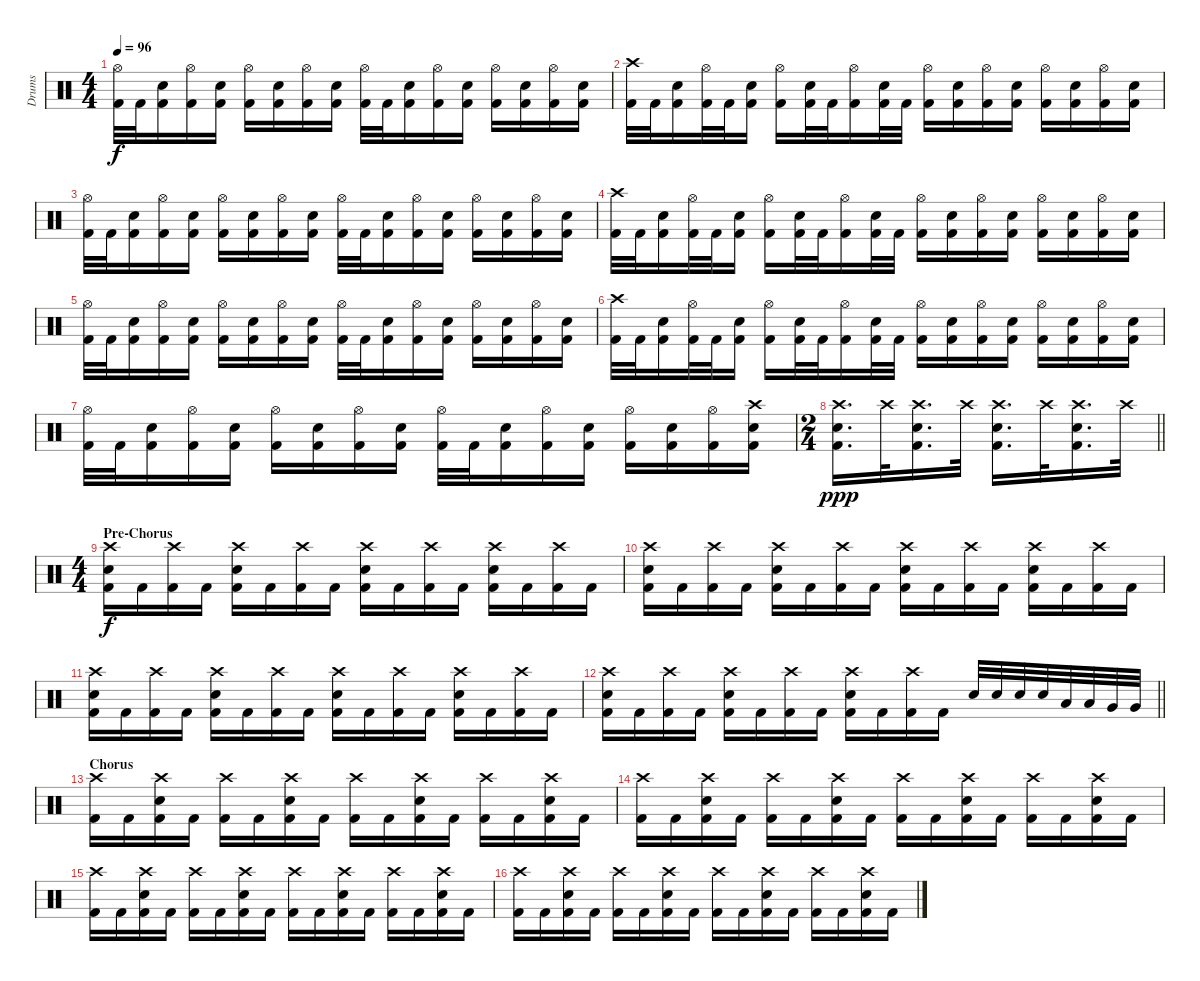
\track ("Drums" "Drums") {instrument percussion}
\staff {score}
\articulation defaults
\ts (4 4)
\tempo 96
\clef neutral
\ks c
("Hi-Hat (open)" "Kick (hit) 2").32{dy f} "Kick (hit) 2".32 ("Snare (hit) 2" "Kick (hit) 2").16 ("Hi-Hat (open)" "Kick (hit) 2").16 ("Snare (hit) 2" "Kick (hit) 2").16 ("Hi-Hat (open)" "Kick (hit) 2").16 ("Snare (hit) 2" "Kick (hit) 2").16 ("Hi-Hat (open)" "Kick (hit) 2").16 ("Snare (hit) 2" "Kick (hit) 2").16 ("Hi-Hat (open)" "Kick (hit) 2").32 "Kick (hit) 2".32 ("Snare (hit) 2" "Kick (hit) 2").16 ("Hi-Hat (open)" "Kick (hit) 2").16 ("Snare (hit) 2" "Kick (hit) 2").16 ("Hi-Hat (open)" "Kick (hit) 2").16 ("Snare (hit) 2" "Kick (hit) 2").16 ("Hi-Hat (open)" "Kick (hit) 2").16 ("Snare (hit) 2" "Kick (hit) 2").16 |
("Crash high (hit)" "Kick (hit) 2").32 "Kick (hit) 2".32 ("Snare (hit) 2" "Kick (hit) 2").16 ("Hi-Hat (open)" "Kick (hit) 2").32 "Kick (hit) 2".32 ("Snare (hit) 2" "Kick (hit) 2").16 ("Hi-Hat (open)" "Kick (hit) 2").16 ("Snare (hit) 2" "Kick (hit) 2").32 "Kick (hit) 2".32 ("Hi-Hat (open)" "Kick (hit) 2").16 ("Snare (hit) 2" "Kick (hit) 2").32 "Kick (hit) 2".32 ("Hi-Hat (open)" "Kick (hit) 2").16 ("Snare (hit) 2" "Kick (hit) 2").16 ("Hi-Hat (open)" "Kick (hit) 2").16 ("Snare (hit) 2" "Kick (hit) 2").16 ("Hi-Hat (open)" "Kick (hit) 2").16 ("Snare (hit) 2" "Kick (hit) 2").16 ("Hi-Hat (open)" "Kick (hit) 2").16 ("Snare (hit) 2" "Kick (hit) 2").16 |
("Hi-Hat (open)" "Kick (hit) 2").32 "Kick (hit) 2".32 ("Snare (hit) 2" "Kick (hit) 2").16 ("Hi-Hat (open)" "Kick (hit) 2").16 ("Snare (hit) 2" "Kick (hit) 2").16 ("Hi-Hat (open)" "Kick (hit) 2").16 ("Snare (hit) 2" "Kick (hit) 2").16 ("Hi-Hat (open)" "Kick (hit) 2").16 ("Snare (hit) 2" "Kick (hit) 2").16 ("Hi-Hat (open)" "Kick (hit) 2").32 "Kick (hit) 2".32 ("Snare (hit) 2" "Kick (hit) 2").16 ("Hi-Hat (open)" "Kick (hit) 2").16 ("Snare (hit) 2" "Kick (hit) 2").16 ("Hi-Hat (open)" "Kick (hit) 2").16 ("Snare (hit) 2" "Kick (hit) 2").16 ("Hi-Hat (open)" "Kick (hit) 2").16 ("Snare (hit) 2" "Kick (hit) 2").16 |
("Crash high (hit)" "Kick (hit) 2").32 "Kick (hit) 2".32 ("Snare (hit) 2" "Kick (hit) 2").16 ("Hi-Hat (open)" "Kick (hit) 2").32 "Kick (hit) 2".32 ("Snare (hit) 2" "Kick (hit) 2").16 ("Hi-Hat (open)" "Kick (hit) 2").16 ("Snare (hit) 2" "Kick (hit) 2").32 "Kick (hit) 2".32 ("Hi-Hat (open)" "Kick (hit) 2").16 ("Snare (hit) 2" "Kick (hit) 2").32 "Kick (hit) 2".32 ("Hi-Hat (open)" "Kick (hit) 2").16 ("Snare (hit) 2" "Kick (hit) 2").16 ("Hi-Hat (open)" "Kick (hit) 2").16 ("Snare (hit) 2" "Kick (hit) 2").16 ("Hi-Hat (open)" "Kick (hit) 2").16 ("Snare (hit) 2" "Kick (hit) 2").16 ("Hi-Hat (open)" "Kick (hit) 2").16 ("Snare (hit) 2" "Kick (hit) 2").16 |
("Hi-Hat (open)" "Kick (hit) 2").32 "Kick (hit) 2".32 ("Snare (hit) 2" "Kick (hit) 2").16 ("Hi-Hat (open)" "Kick (hit) 2").16 ("Snare (hit) 2" "Kick (hit) 2").16 ("Hi-Hat (open)" "Kick (hit) 2").16 ("Snare (hit) 2" "Kick (hit) 2").16 ("Hi-Hat (open)" "Kick (hit) 2").16 ("Snare (hit) 2" "Kick (hit) 2").16 ("Hi-Hat (open)" "Kick (hit) 2").32 "Kick (hit) 2".32 ("Snare (hit) 2" "Kick (hit) 2").16 ("Hi-Hat (open)" "Kick (hit) 2").16 ("Snare (hit) 2" "Kick (hit) 2").16 ("Hi-Hat (open)" "Kick (hit) 2").16 ("Snare (hit) 2" "Kick (hit) 2").16 ("Hi-Hat (open)" "Kick (hit) 2").16 ("Snare (hit) 2" "Kick (hit) 2").16 |
("Crash high (hit)" "Kick (hit) 2").32 "Kick (hit) 2".32 ("Snare (hit) 2" "Kick (hit) 2").16 ("Hi-Hat (open)" "Kick (hit) 2").32 "Kick (hit) 2".32 ("Snare (hit) 2" "Kick (hit) 2").16 ("Hi-Hat (open)" "Kick (hit) 2").16 ("Snare (hit) 2" "Kick (hit) 2").32 "Kick (hit) 2".32 ("Hi-Hat (open)" "Kick (hit) 2").16 ("Snare (hit) 2" "Kick (hit) 2").32 "Kick (hit) 2".32 ("Hi-Hat (open)" "Kick (hit) 2").16 ("Snare (hit) 2" "Kick (hit) 2").16 ("Hi-Hat (open)" "Kick (hit) 2").16 ("Snare (hit) 2" "Kick (hit) 2").16 ("Hi-Hat (open)" "Kick (hit) 2").16 ("Snare (hit) 2" "Kick (hit) 2").16 ("Hi-Hat (open)" "Kick (hit) 2").16 ("Snare (hit) 2" "Kick (hit) 2").16 |
("Hi-Hat (open)" "Kick (hit) 2").32 "Kick (hit) 2".32 ("Snare (hit) 2" "Kick (hit) 2").16 ("Hi-Hat (open)" "Kick (hit) 2").16 ("Snare (hit) 2" "Kick (hit) 2").16 ("Hi-Hat (open)" "Kick (hit) 2").16 ("Snare (hit) 2" "Kick (hit) 2").16 ("Hi-Hat (open)" "Kick (hit) 2").16 ("Snare (hit) 2" "Kick (hit) 2").16 ("Hi-Hat (open)" "Kick (hit) 2").32 "Kick (hit) 2".32 ("Snare (hit) 2" "Kick (hit) 2").16 ("Hi-Hat (open)" "Kick (hit) 2").16 ("Snare (hit) 2" "Kick (hit) 2").16 ("Hi-Hat (open)" "Kick (hit) 2").16 ("Snare (hit) 2" "Kick (hit) 2").16 ("Hi-Hat (open)" "Kick (hit) 2").16 ("Crash high (hit)" "Snare (hit) 2" "Kick (hit) 2").16 |
\ts (2 4)
\barLineRight lightlight
("Crash high (hit)" "Snare (hit) 2" "Kick (hit) 2").16{d dy ppp} "Crash high (hit)".32 ("Crash high (hit)" "Snare (hit) 2" "Kick (hit) 2").16{d} "Crash high (hit)".32 ("Crash high (hit)" "Snare (hit) 2" "Kick (hit) 2").16{d} "Crash high (hit)".32 ("Crash high (hit)" "Snare (hit) 2" "Kick (hit) 2").16{d} "Crash high (hit)".32 |
\ts (4 4)
\section ("" "Pre-Chorus")
("Crash high (hit)" "Snare (hit) 2" "Kick (hit) 2").16{dy f} "Kick (hit) 2".16 ("Crash high (hit)" "Kick (hit) 2").16 "Kick (hit) 2".16 ("Crash high (hit)" "Snare (hit) 2" "Kick (hit) 2").16 "Kick (hit) 2".16 ("Crash high (hit)" "Kick (hit) 2").16 "Kick (hit) 2".16 ("Crash high (hit)" "Snare (hit) 2" "Kick (hit) 2").16 "Kick (hit) 2".16 ("Crash high (hit)" "Kick (hit) 2").16 "Kick (hit) 2".16 ("Crash high (hit)" "Snare (hit) 2" "Kick (hit) 2").16 "Kick (hit) 2".16 ("Crash high (hit)" "Kick (hit) 2").16 "Kick (hit) 2".16 |
("Crash high (hit)" "Snare (hit) 2" "Kick (hit) 2").16 "Kick (hit) 2".16 ("Crash high (hit)" "Kick (hit) 2").16 "Kick (hit) 2".16 ("Crash high (hit)" "Snare (hit) 2" "Kick (hit) 2").16 "Kick (hit) 2".16 ("Crash high (hit)" "Kick (hit) 2").16 "Kick (hit) 2".16 ("Crash high (hit)" "Snare (hit) 2" "Kick (hit) 2").16 "Kick (hit) 2".16 ("Crash high (hit)" "Kick (hit) 2").16 "Kick (hit) 2".16 ("Crash high (hit)" "Snare (hit) 2" "Kick (hit) 2").16 "Kick (hit) 2".16 ("Crash high (hit)" "Kick (hit) 2").16 "Kick (hit) 2".16 |
("Crash high (hit)" "Snare (hit) 2" "Kick (hit) 2").16 "Kick (hit) 2".16 ("Crash high (hit)" "Kick (hit) 2").16 "Kick (hit) 2".16 ("Crash high (hit)" "Snare (hit) 2" "Kick (hit) 2").16 "Kick (hit) 2".16 ("Crash high (hit)" "Kick (hit) 2").16 "Kick (hit) 2".16 ("Crash high (hit)" "Snare (hit) 2" "Kick (hit) 2").16 "Kick (hit) 2".16 ("Crash high (hit)" "Kick (hit) 2").16 "Kick (hit) 2".16 ("Crash high (hit)" "Snare (hit) 2" "Kick (hit) 2").16 "Kick (hit) 2".16 ("Crash high (hit)" "Kick (hit) 2").16 "Kick (hit) 2".16 |
\barLineRight lightlight
("Crash high (hit)" "Snare (hit) 2" "Kick (hit) 2").16 "Kick (hit) 2".16 ("Crash high (hit)" "Kick (hit) 2").16 "Kick (hit) 2".16 ("Crash high (hit)" "Snare (hit) 2" "Kick (hit) 2").16 "Kick (hit) 2".16 ("Crash high (hit)" "Kick (hit) 2").16 "Kick (hit) 2".16 ("Crash high (hit)" "Snare (hit) 2" "Kick (hit) 2").16 "Kick (hit) 2".16 ("Crash high (hit)" "Kick (hit) 2").16 "Kick (hit) 2".16 "Snare (hit) 2".32 "Snare (hit) 2".32 "Snare (hit) 2".32 "Snare (hit) 2".32 "Low Tom (hit)".32 "Low Tom (hit)".32 "Very Low Tom (hit)".32 "Very Low Tom (hit)".32 |
\section ("" "Chorus")
("Crash high (hit)" "Kick (hit) 2").16 "Kick (hit) 2".16 ("Crash high (hit)" "Snare (hit) 2" "Kick (hit) 2").16 "Kick (hit) 2".16 ("Crash high (hit)" "Kick (hit) 2").16 "Kick (hit) 2".16 ("Crash high (hit)" "Snare (hit) 2" "Kick (hit) 2").16 "Kick (hit) 2".16 ("Crash high (hit)" "Kick (hit) 2").16 "Kick (hit) 2".16 ("Crash high (hit)" "Snare (hit) 2" "Kick (hit) 2").16 "Kick (hit) 2".16 ("Crash high (hit)" "Kick (hit) 2").16 "Kick (hit) 2".16 ("Crash high (hit)" "Snare (hit) 2" "Kick (hit) 2").16 "Kick (hit) 2".16 |
("Crash high (hit)" "Kick (hit) 2").16 "Kick (hit) 2".16 ("Crash high (hit)" "Snare (hit) 2" "Kick (hit) 2").16 "Kick (hit) 2".16 ("Crash high (hit)" "Kick (hit) 2").16 "Kick (hit) 2".16 ("Crash high (hit)" "Snare (hit) 2" "Kick (hit) 2").16 "Kick (hit) 2".16 ("Crash high (hit)" "Kick (hit) 2").16 "Kick (hit) 2".16 ("Crash high (hit)" "Snare (hit) 2" "Kick (hit) 2").16 "Kick (hit) 2".16 ("Crash high (hit)" "Kick (hit) 2").16 "Kick (hit) 2".16 ("Crash high (hit)" "Snare (hit) 2" "Kick (hit) 2").16 "Kick (hit) 2".16 |
("Crash high (hit)" "Kick (hit) 2").16 "Kick (hit) 2".16 ("Crash high (hit)" "Snare (hit) 2" "Kick (hit) 2").16 "Kick (hit) 2".16 ("Crash high (hit)" "Kick (hit) 2").16 "Kick (hit) 2".16 ("Crash high (hit)" "Snare (hit) 2" "Kick (hit) 2").16 "Kick (hit) 2".16 ("Crash high (hit)" "Kick (hit) 2").16 "Kick (hit) 2".16 ("Crash high (hit)" "Snare (hit) 2" "Kick (hit) 2").16 "Kick (hit) 2".16 ("Crash high (hit)" "Kick (hit) 2").16 "Kick (hit) 2".16 ("Crash high (hit)" "Snare (hit) 2" "Kick (hit) 2").16 "Kick (hit) 2".16 |
("Crash high (hit)" "Kick (hit) 2").16 "Kick (hit) 2".16 ("Crash high (hit)" "Snare (hit) 2" "Kick (hit) 2").16 "Kick (hit) 2".16 ("Crash high (hit)" "Kick (hit) 2").16 "Kick (hit) 2".16 ("Crash high (hit)" "Snare (hit) 2" "Kick (hit) 2").16 "Kick (hit) 2".16 ("Crash high (hit)" "Kick (hit) 2").16 "Kick (hit) 2".16 ("Crash high (hit)" "Snare (hit) 2" "Kick (hit) 2").16 "Kick (hit) 2".16 ("Crash high (hit)" "Kick (hit) 2").16 "Kick (hit) 2".16 ("Crash high (hit)" "Snare (hit) 2" "Kick (hit) 2").16 "Kick (hit) 2".16
